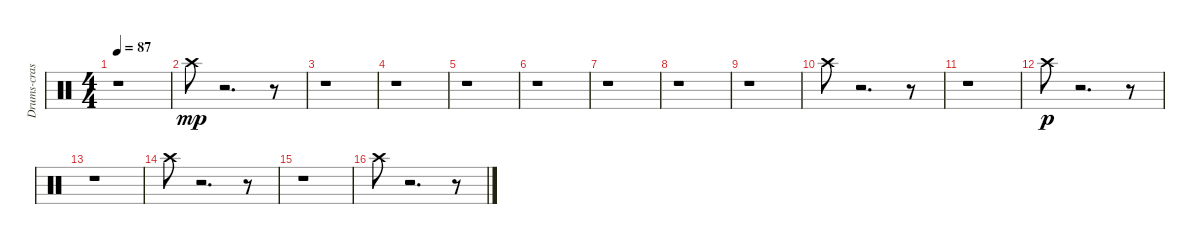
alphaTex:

\track ("Drums-crash cymbal 1" "Drums-cras") {instrument percussion}
\staff {score}
\articulation defaults
\ts (4 4)
\tempo 87
\clef neutral
\ks c
r.1{dy mp} |
"Crash high (hit)".8 r.2{d} r.8 |
r.1 |
r.1 |
r.1 |
r.1 |
r.1 |
r.1 |
r.1 |
"Crash high (hit)".8 r.2{d} r.8 |
r.1 |
"Crash high (hit)".8{dy p} r.2{d} r.8 |
r.1 |
"Crash high (hit)".8 r.2{d} r.8 |
r.1 |
"Crash high (hit)".8 r.2{d} r.8
